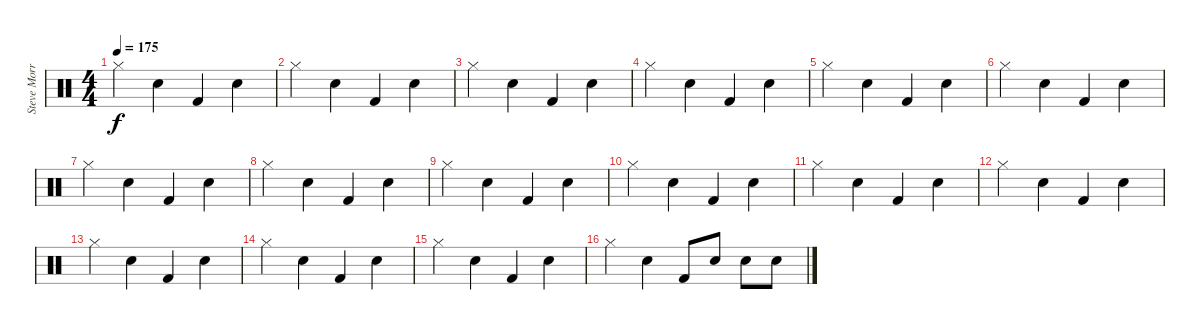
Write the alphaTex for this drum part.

\track ("Steve Morris" "Steve Morr") {instrument percussion}
\staff {score}
\articulation defaults
\ts (4 4)
\tempo 175
\clef neutral
\ks c "Hi-Hat (closed)".4{dy f} "Snare (hit) 2".4 "Kick (hit) 2".4 "Snare (hit) 2".4
|
"Hi-Hat (closed)".4 "Snare (hit) 2".4 "Kick (hit) 2".4 "Snare (hit) 2".4 |
"Hi-Hat (closed)".4 "Snare (hit) 2".4 "Kick (hit) 2".4 "Snare (hit) 2".4 |
"Hi-Hat (closed)".4 "Snare (hit) 2".4 "Kick (hit) 2".4 "Snare (hit) 2".4 |
"Hi-Hat (closed)".4 "Snare (hit) 2".4 "Kick (hit) 2".4 "Snare (hit) 2".4 |
"Hi-Hat (closed)".4 "Snare (hit) 2".4 "Kick (hit) 2".4 "Snare (hit) 2".4 |
"Hi-Hat (closed)".4 "Snare (hit) 2".4 "Kick (hit) 2".4 "Snare (hit) 2".4 |
"Hi-Hat (closed)".4 "Snare (hit) 2".4 "Kick (hit) 2".4 "Snare (hit) 2".4 |
"Hi-Hat (closed)".4 "Snare (hit) 2".4 "Kick (hit) 2".4 "Snare (hit) 2".4 |
"Hi-Hat (closed)".4 "Snare (hit) 2".4 "Kick (hit) 2".4 "Snare (hit) 2".4 |
"Hi-Hat (closed)".4 "Snare (hit) 2".4 "Kick (hit) 2".4 "Snare (hit) 2".4 |
"Hi-Hat (closed)".4 "Snare (hit) 2".4 "Kick (hit) 2".4 "Snare (hit) 2".4 |
"Hi-Hat (closed)".4 "Snare (hit) 2".4 "Kick (hit) 2".4 "Snare (hit) 2".4 |
"Hi-Hat (closed)".4 "Snare (hit) 2".4 "Kick (hit) 2".4 "Snare (hit) 2".4 |
"Hi-Hat (closed)".4 "Snare (hit) 2".4 "Kick (hit) 2".4 "Snare (hit) 2".4 |
"Hi-Hat (closed)".4 "Snare (hit) 2".4 "Kick (hit) 2".8 "Snare (hit) 2".8 "Snare (hit) 2".8 "Snare (hit) 2".8
